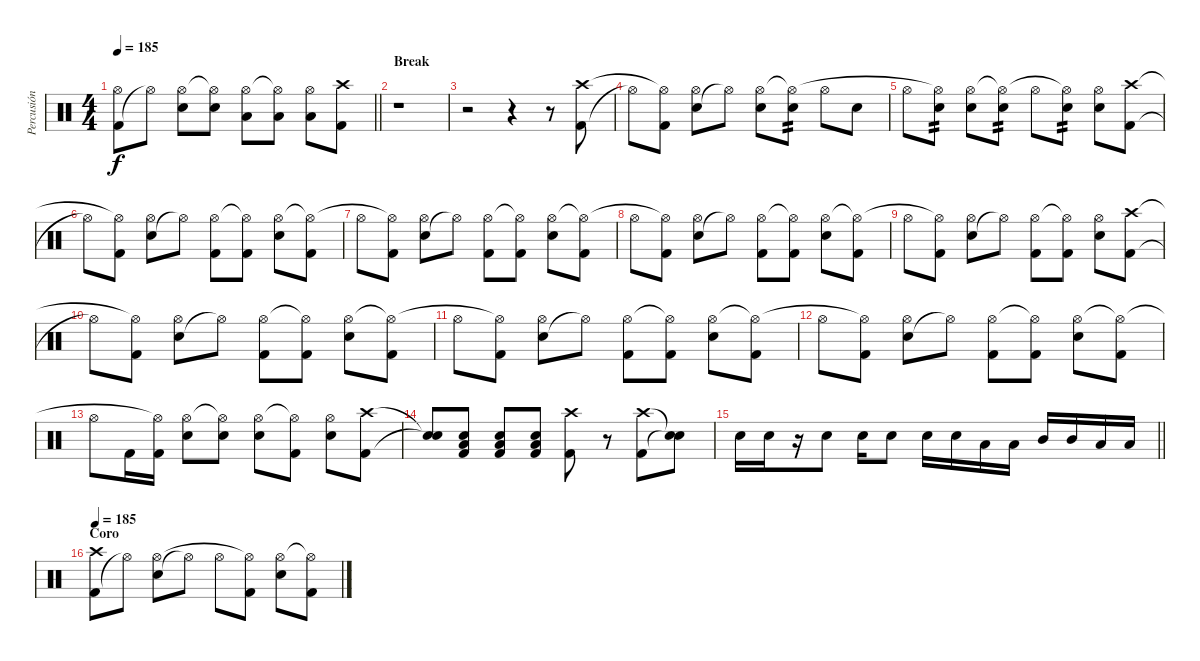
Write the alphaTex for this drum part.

\track ("Percusión" "Percusión") {instrument percussion}
\staff {score}
\articulation defaults
\ts (4 4)
\tempo 185
\clef neutral
\barLineRight lightlight
\ks c
("Kick (hit) 2" "Hi-Hat (open)").8{dy f} "Hi-Hat (open)"{t}.8 ("Snare (hit) 2" "Hi-Hat (open)").8 ("Snare (hit) 2" "Hi-Hat (open)"{t}).8 ("Low Tom (hit)" "Hi-Hat (open)").8 ("Low Tom (hit)" "Hi-Hat (open)"{t}).8 ("Low Floor Tom (hit)" "Hi-Hat (open)").8 ("Kick (hit) 2" "Crash high (hit)").8 |
\section ("" "Break")
r.1 |
r.2 r.4 r.8 ("Kick (hit) 2" "Crash high (hit)").8 |
"Hi-Hat (open)"{t}.8 ("Kick (hit) 2" "Hi-Hat (open)"{t}).8 ("Snare (hit) 2" "Hi-Hat (open)").8 "Hi-Hat (open)"{t}.8 ("Snare (hit) 2" "Hi-Hat (open)").8 ("Snare (hit) 2" "Hi-Hat (open)"{t}).8{tp 2} "Hi-Hat (open)".8 "Snare (hit) 2".8 |
"Hi-Hat (open)".8 ("Snare (hit) 2" "Hi-Hat (open)"{t}).8{tp 2} ("Snare (hit) 2" "Hi-Hat (open)").8 ("Snare (hit) 2" "Hi-Hat (open)"{t}).8{tp 2} "Hi-Hat (open)".8 ("Snare (hit) 2" "Hi-Hat (open)"{t}).8{tp 2} ("Snare (hit) 2" "Hi-Hat (open)").8 ("Kick (hit) 2" "Crash high (hit)").8 |
"Hi-Hat (open)"{t}.8 ("Kick (hit) 2" "Hi-Hat (open)"{t}).8 ("Snare (hit) 2" "Hi-Hat (open)").8 "Hi-Hat (open)"{t}.8 ("Kick (hit) 2" "Hi-Hat (open)").8 ("Kick (hit) 2" "Hi-Hat (open)"{t}).8 ("Snare (hit) 2" "Hi-Hat (open)").8 ("Kick (hit) 2" "Hi-Hat (open)"{t}).8 |
"Hi-Hat (open)".8 ("Kick (hit) 2" "Hi-Hat (open)"{t}).8 ("Snare (hit) 2" "Hi-Hat (open)").8 "Hi-Hat (open)"{t}.8 ("Kick (hit) 2" "Hi-Hat (open)").8 ("Kick (hit) 2" "Hi-Hat (open)"{t}).8 ("Snare (hit) 2" "Hi-Hat (open)").8 ("Kick (hit) 2" "Hi-Hat (open)"{t}).8 |
"Hi-Hat (open)".8 ("Kick (hit) 2" "Hi-Hat (open)"{t}).8 ("Snare (hit) 2" "Hi-Hat (open)").8 "Hi-Hat (open)"{t}.8 ("Kick (hit) 2" "Hi-Hat (open)").8 ("Kick (hit) 2" "Hi-Hat (open)"{t}).8 ("Snare (hit) 2" "Hi-Hat (open)").8 ("Kick (hit) 2" "Hi-Hat (open)"{t}).8 |
"Hi-Hat (open)".8 ("Kick (hit) 2" "Hi-Hat (open)"{t}).8 ("Snare (hit) 2" "Hi-Hat (open)").8 "Hi-Hat (open)"{t}.8 ("Kick (hit) 2" "Hi-Hat (open)").8 ("Kick (hit) 2" "Hi-Hat (open)"{t}).8 ("Snare (hit) 2" "Hi-Hat (open)").8 ("Kick (hit) 2" "Crash high (hit)").8 |
"Hi-Hat (open)"{t}.8 ("Kick (hit) 2" "Hi-Hat (open)"{t}).8 ("Snare (hit) 2" "Hi-Hat (open)").8 "Hi-Hat (open)"{t}.8 ("Kick (hit) 2" "Hi-Hat (open)").8 ("Kick (hit) 2" "Hi-Hat (open)"{t}).8 ("Snare (hit) 2" "Hi-Hat (open)").8 ("Kick (hit) 2" "Hi-Hat (open)"{t}).8 |
"Hi-Hat (open)".8 ("Kick (hit) 2" "Hi-Hat (open)"{t}).8 ("Snare (hit) 2" "Hi-Hat (open)").8 "Hi-Hat (open)"{t}.8 ("Kick (hit) 2" "Hi-Hat (open)").8 ("Kick (hit) 2" "Hi-Hat (open)"{t}).8 ("Snare (hit) 2" "Hi-Hat (open)").8 ("Kick (hit) 2" "Hi-Hat (open)"{t}).8 |
"Hi-Hat (open)".8 ("Kick (hit) 2" "Hi-Hat (open)"{t}).8 ("Snare (hit) 2" "Hi-Hat (open)").8 "Hi-Hat (open)"{t}.8 ("Kick (hit) 2" "Hi-Hat (open)").8 ("Kick (hit) 2" "Hi-Hat (open)"{t}).8 ("Snare (hit) 2" "Hi-Hat (open)").8 ("Kick (hit) 2" "Hi-Hat (open)"{t}).8 |
"Hi-Hat (open)".8 "Kick (hit) 2".16 ("Kick (hit) 2" "Hi-Hat (open)"{t}).16 ("Snare (hit) 2" "Hi-Hat (open)").8 ("Snare (hit) 2" "Hi-Hat (open)"{t}).8 ("Snare (hit) 2" "Hi-Hat (open)").8 ("Kick (hit) 2" "Hi-Hat (open)"{t}).8 ("Snare (hit) 2" "Hi-Hat (open)").8 ("Kick (hit) 2" "Crash high (hit)").8 |
("Snare (hit)"{t} "Snare (hit)"{t}).8 ("Low Floor Tom (hit)" "Snare (hit) 2" "Kick (hit) 2").8 ("Low Floor Tom (hit)" "Snare (hit) 2" "Kick (hit) 2").8 ("Low Floor Tom (hit)" "Snare (hit) 2" "Kick (hit) 2").8 ("Crash high (hit)" "Kick (hit) 2").8 r.8 ("Crash high (hit)" "Kick (hit) 2").8 ("Snare (hit)"{t} "Snare (hit)"{t}).8 |
\barLineRight lightlight "Snare (hit) 2".16 "Snare (hit) 2".16
r.16 "Snare (hit) 2".8 "Snare (hit) 2".16 "Snare (hit) 2".8 "Snare (hit) 2".16 "Snare (hit) 2".16 "Low Tom (hit)".16 "Low Tom (hit)".16 "Mid Tom (hit)".16 "Mid Tom (hit)".16 "Low Floor Tom (hit)".16 "Low Floor Tom (hit)".16 |
\section ("" "Coro")
\tempo 185
("Kick (hit) 2" "Crash high (hit)").8 "Hi-Hat (open)"{t}.8 ("Snare (hit) 2" "Hi-Hat (open)").8 "Hi-Hat (open)"{t}.8 "Hi-Hat (open)".8 ("Kick (hit) 2" "Hi-Hat (open)"{t}).8 ("Snare (hit) 2" "Hi-Hat (open)").8 ("Kick (hit) 2" "Hi-Hat (open)"{t}).8
